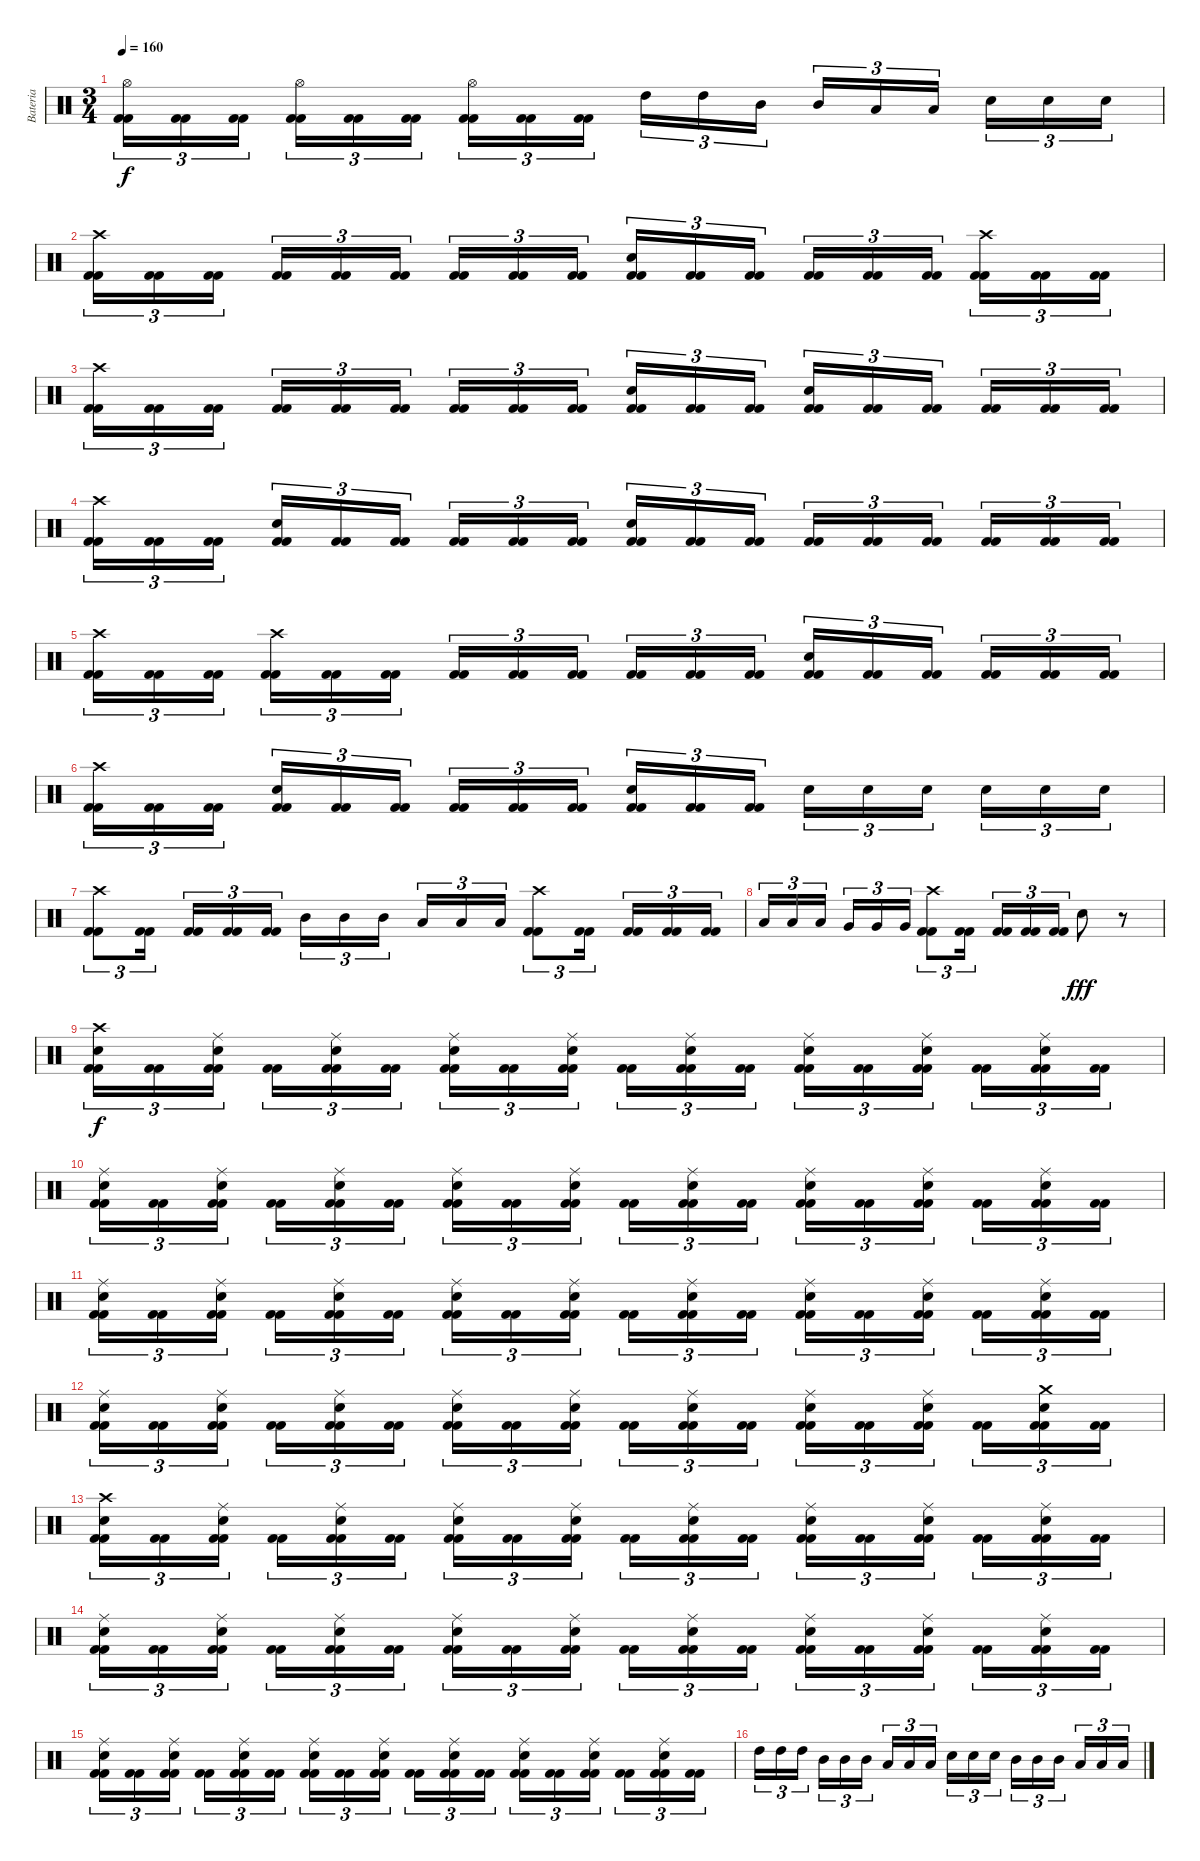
\track ("Bateria" "Bateria") {instrument percussion}
\staff {score}
\articulation defaults
\ts (3 4)
\tempo 160
\clef neutral
\ks c
("Kick (hit) 2" "Kick (hit) 2" "Hi-Hat (open)").16{tu (3 2) dy f} ("Kick (hit) 2" "Kick (hit) 2").16{tu (3 2)} ("Kick (hit) 2" "Kick (hit) 2").16{tu (3 2)} ("Kick (hit) 2" "Kick (hit) 2" "Hi-Hat (open)").16{tu (3 2)} ("Kick (hit) 2" "Kick (hit) 2").16{tu (3 2)} ("Kick (hit) 2" "Kick (hit) 2").16{tu (3 2)} ("Kick (hit) 2" "Kick (hit) 2" "Hi-Hat (open)").16{tu (3 2)} ("Kick (hit) 2" "Kick (hit) 2").16{tu (3 2)} ("Kick (hit) 2" "Kick (hit) 2").16{tu (3 2)} "High Tom (hit)".16{tu (3 2)} "High Tom (hit)".16{tu (3 2)} "Mid Tom (hit)".16{tu (3 2)} "Mid Tom (hit)".16{tu (3 2)} "Low Tom (hit)".16{tu (3 2)} "Low Tom (hit)".16{tu (3 2)} "Snare (hit) 2".16{tu (3 2)} "Snare (hit) 2".16{tu (3 2)} "Snare (hit) 2".16{tu (3 2)} |
("Kick (hit) 2" "Kick (hit) 2" "Crash high (hit)").16{tu (3 2)} ("Kick (hit) 2" "Kick (hit) 2").16{tu (3 2)} ("Kick (hit) 2" "Kick (hit) 2").16{tu (3 2)} ("Kick (hit) 2" "Kick (hit) 2").16{tu (3 2)} ("Kick (hit) 2" "Kick (hit) 2").16{tu (3 2)} ("Kick (hit) 2" "Kick (hit) 2").16{tu (3 2)} ("Kick (hit) 2" "Kick (hit) 2").16{tu (3 2)} ("Kick (hit) 2" "Kick (hit) 2").16{tu (3 2)} ("Kick (hit) 2" "Kick (hit) 2").16{tu (3 2)} ("Kick (hit) 2" "Kick (hit) 2" "Snare (hit) 2").16{tu (3 2)} ("Kick (hit) 2" "Kick (hit) 2").16{tu (3 2)} ("Kick (hit) 2" "Kick (hit) 2").16{tu (3 2)} ("Kick (hit) 2" "Kick (hit) 2").16{tu (3 2)} ("Kick (hit) 2" "Kick (hit) 2").16{tu (3 2)} ("Kick (hit) 2" "Kick (hit) 2").16{tu (3 2)} ("Kick (hit) 2" "Kick (hit) 2" "Crash high (hit)").16{tu (3 2)} ("Kick (hit) 2" "Kick (hit) 2").16{tu (3 2)} ("Kick (hit) 2" "Kick (hit) 2").16{tu (3 2)} |
("Kick (hit) 2" "Kick (hit) 2" "Crash high (hit)").16{tu (3 2)} ("Kick (hit) 2" "Kick (hit) 2").16{tu (3 2)} ("Kick (hit) 2" "Kick (hit) 2").16{tu (3 2)} ("Kick (hit) 2" "Kick (hit) 2").16{tu (3 2)} ("Kick (hit) 2" "Kick (hit) 2").16{tu (3 2)} ("Kick (hit) 2" "Kick (hit) 2").16{tu (3 2)} ("Kick (hit) 2" "Kick (hit) 2").16{tu (3 2)} ("Kick (hit) 2" "Kick (hit) 2").16{tu (3 2)} ("Kick (hit) 2" "Kick (hit) 2").16{tu (3 2)} ("Kick (hit) 2" "Kick (hit) 2" "Snare (hit) 2").16{tu (3 2)} ("Kick (hit) 2" "Kick (hit) 2").16{tu (3 2)} ("Kick (hit) 2" "Kick (hit) 2").16{tu (3 2)} ("Kick (hit) 2" "Kick (hit) 2" "Snare (hit) 2").16{tu (3 2)} ("Kick (hit) 2" "Kick (hit) 2").16{tu (3 2)} ("Kick (hit) 2" "Kick (hit) 2").16{tu (3 2)} ("Kick (hit) 2" "Kick (hit) 2").16{tu (3 2)} ("Kick (hit) 2" "Kick (hit) 2").16{tu (3 2)} ("Kick (hit) 2" "Kick (hit) 2").16{tu (3 2)} |
("Kick (hit) 2" "Kick (hit) 2" "Crash high (hit)").16{tu (3 2)} ("Kick (hit) 2" "Kick (hit) 2").16{tu (3 2)} ("Kick (hit) 2" "Kick (hit) 2").16{tu (3 2)} ("Kick (hit) 2" "Kick (hit) 2" "Snare (hit) 2").16{tu (3 2)} ("Kick (hit) 2" "Kick (hit) 2").16{tu (3 2)} ("Kick (hit) 2" "Kick (hit) 2").16{tu (3 2)} ("Kick (hit) 2" "Kick (hit) 2").16{tu (3 2)} ("Kick (hit) 2" "Kick (hit) 2").16{tu (3 2)} ("Kick (hit) 2" "Kick (hit) 2").16{tu (3 2)} ("Kick (hit) 2" "Kick (hit) 2" "Snare (hit) 2").16{tu (3 2)} ("Kick (hit) 2" "Kick (hit) 2").16{tu (3 2)} ("Kick (hit) 2" "Kick (hit) 2").16{tu (3 2)} ("Kick (hit) 2" "Kick (hit) 2").16{tu (3 2)} ("Kick (hit) 2" "Kick (hit) 2").16{tu (3 2)} ("Kick (hit) 2" "Kick (hit) 2").16{tu (3 2)} ("Kick (hit) 2" "Kick (hit) 2").16{tu (3 2)} ("Kick (hit) 2" "Kick (hit) 2").16{tu (3 2)} ("Kick (hit) 2" "Kick (hit) 2").16{tu (3 2)} |
("Kick (hit) 2" "Kick (hit) 2" "Crash high (hit)").16{tu (3 2)} ("Kick (hit) 2" "Kick (hit) 2").16{tu (3 2)} ("Kick (hit) 2" "Kick (hit) 2").16{tu (3 2)} ("Kick (hit) 2" "Kick (hit) 2" "Crash high (hit)").16{tu (3 2)} ("Kick (hit) 2" "Kick (hit) 2").16{tu (3 2)} ("Kick (hit) 2" "Kick (hit) 2").16{tu (3 2)} ("Kick (hit) 2" "Kick (hit) 2").16{tu (3 2)} ("Kick (hit) 2" "Kick (hit) 2").16{tu (3 2)} ("Kick (hit) 2" "Kick (hit) 2").16{tu (3 2)} ("Kick (hit) 2" "Kick (hit) 2").16{tu (3 2)} ("Kick (hit) 2" "Kick (hit) 2").16{tu (3 2)} ("Kick (hit) 2" "Kick (hit) 2").16{tu (3 2)} ("Kick (hit) 2" "Kick (hit) 2" "Snare (hit) 2").16{tu (3 2)} ("Kick (hit) 2" "Kick (hit) 2").16{tu (3 2)} ("Kick (hit) 2" "Kick (hit) 2").16{tu (3 2)} ("Kick (hit) 2" "Kick (hit) 2").16{tu (3 2)} ("Kick (hit) 2" "Kick (hit) 2").16{tu (3 2)} ("Kick (hit) 2" "Kick (hit) 2").16{tu (3 2)} |
("Kick (hit) 2" "Kick (hit) 2" "Crash high (hit)").16{tu (3 2)} ("Kick (hit) 2" "Kick (hit) 2").16{tu (3 2)} ("Kick (hit) 2" "Kick (hit) 2").16{tu (3 2)} ("Kick (hit) 2" "Kick (hit) 2" "Snare (hit) 2").16{tu (3 2)} ("Kick (hit) 2" "Kick (hit) 2").16{tu (3 2)} ("Kick (hit) 2" "Kick (hit) 2").16{tu (3 2)} ("Kick (hit) 2" "Kick (hit) 2").16{tu (3 2)} ("Kick (hit) 2" "Kick (hit) 2").16{tu (3 2)} ("Kick (hit) 2" "Kick (hit) 2").16{tu (3 2)} ("Kick (hit) 2" "Kick (hit) 2" "Snare (hit) 2").16{tu (3 2)} ("Kick (hit) 2" "Kick (hit) 2").16{tu (3 2)} ("Kick (hit) 2" "Kick (hit) 2").16{tu (3 2)} "Snare (hit) 2".16{tu (3 2)} "Snare (hit) 2".16{tu (3 2)} "Snare (hit) 2".16{tu (3 2)} "Snare (hit) 2".16{tu (3 2)} "Snare (hit) 2".16{tu (3 2)} "Snare (hit) 2".16{tu (3 2)} |
("Kick (hit) 2" "Kick (hit) 2" "Crash high (hit)").8{tu (3 2)} ("Kick (hit) 2" "Kick (hit) 2").16{tu (3 2)} ("Kick (hit) 2" "Kick (hit) 2").16{tu (3 2)} ("Kick (hit) 2" "Kick (hit) 2").16{tu (3 2)} ("Kick (hit) 2" "Kick (hit) 2").16{tu (3 2)} "Mid Tom (hit)".16{tu (3 2)} "Mid Tom (hit)".16{tu (3 2)} "Mid Tom (hit)".16{tu (3 2)} "Low Tom (hit)".16{tu (3 2)} "Low Tom (hit)".16{tu (3 2)} "Low Tom (hit)".16{tu (3 2)} ("Kick (hit) 2" "Kick (hit) 2" "Crash high (hit)").8{tu (3 2)} ("Kick (hit) 2" "Kick (hit) 2").16{tu (3 2)} ("Kick (hit) 2" "Kick (hit) 2").16{tu (3 2)} ("Kick (hit) 2" "Kick (hit) 2").16{tu (3 2)} ("Kick (hit) 2" "Kick (hit) 2").16{tu (3 2)} |
"Low Tom (hit)".16{tu (3 2)} "Low Tom (hit)".16{tu (3 2)} "Low Tom (hit)".16{tu (3 2)} "Very Low Tom (hit)".16{tu (3 2)} "Very Low Tom (hit)".16{tu (3 2)} "Very Low Tom (hit)".16{tu (3 2)} ("Kick (hit) 2" "Kick (hit) 2" "Crash high (hit)").8{tu (3 2)} ("Kick (hit) 2" "Kick (hit) 2").16{tu (3 2)} ("Kick (hit) 2" "Kick (hit) 2").16{tu (3 2)} ("Kick (hit) 2" "Kick (hit) 2").16{tu (3 2)} ("Kick (hit) 2" "Kick (hit) 2").16{tu (3 2)} "Snare (hit) 2".8{dy fff} r.8 |
("Kick (hit) 2" "Kick (hit) 2" "Snare (hit) 2" "Crash high (hit)").16{tu (3 2) dy f} ("Kick (hit) 2" "Kick (hit) 2").16{tu (3 2)} ("Kick (hit) 2" "Kick (hit) 2" "Snare (hit) 2" "Ride (middle)").16{tu (3 2)} ("Kick (hit) 2" "Kick (hit) 2").16{tu (3 2)} ("Kick (hit) 2" "Kick (hit) 2" "Snare (hit) 2" "Ride (middle)").16{tu (3 2)} ("Kick (hit) 2" "Kick (hit) 2").16{tu (3 2)} ("Kick (hit) 2" "Kick (hit) 2" "Snare (hit) 2" "Ride (middle)").16{tu (3 2)} ("Kick (hit) 2" "Kick (hit) 2").16{tu (3 2)} ("Kick (hit) 2" "Kick (hit) 2" "Snare (hit) 2" "Ride (middle)").16{tu (3 2)} ("Kick (hit) 2" "Kick (hit) 2").16{tu (3 2)} ("Kick (hit) 2" "Kick (hit) 2" "Snare (hit) 2" "Ride (middle)").16{tu (3 2)} ("Kick (hit) 2" "Kick (hit) 2").16{tu (3 2)} ("Kick (hit) 2" "Kick (hit) 2" "Snare (hit) 2" "Ride (middle)").16{tu (3 2)} ("Kick (hit) 2" "Kick (hit) 2").16{tu (3 2)} ("Kick (hit) 2" "Kick (hit) 2" "Snare (hit) 2" "Ride (middle)").16{tu (3 2)} ("Kick (hit) 2" "Kick (hit) 2").16{tu (3 2)} ("Kick (hit) 2" "Kick (hit) 2" "Snare (hit) 2" "Ride (middle)").16{tu (3 2)} ("Kick (hit) 2" "Kick (hit) 2").16{tu (3 2)} |
("Kick (hit) 2" "Kick (hit) 2" "Snare (hit) 2" "Ride (middle)").16{tu (3 2)} ("Kick (hit) 2" "Kick (hit) 2").16{tu (3 2)} ("Kick (hit) 2" "Kick (hit) 2" "Snare (hit) 2" "Ride (middle)").16{tu (3 2)} ("Kick (hit) 2" "Kick (hit) 2").16{tu (3 2)} ("Kick (hit) 2" "Kick (hit) 2" "Snare (hit) 2" "Ride (middle)").16{tu (3 2)} ("Kick (hit) 2" "Kick (hit) 2").16{tu (3 2)} ("Kick (hit) 2" "Kick (hit) 2" "Snare (hit) 2" "Ride (middle)").16{tu (3 2)} ("Kick (hit) 2" "Kick (hit) 2").16{tu (3 2)} ("Kick (hit) 2" "Kick (hit) 2" "Snare (hit) 2" "Ride (middle)").16{tu (3 2)} ("Kick (hit) 2" "Kick (hit) 2").16{tu (3 2)} ("Kick (hit) 2" "Kick (hit) 2" "Snare (hit) 2" "Ride (middle)").16{tu (3 2)} ("Kick (hit) 2" "Kick (hit) 2").16{tu (3 2)} ("Kick (hit) 2" "Kick (hit) 2" "Snare (hit) 2" "Ride (middle)").16{tu (3 2)} ("Kick (hit) 2" "Kick (hit) 2").16{tu (3 2)} ("Kick (hit) 2" "Kick (hit) 2" "Snare (hit) 2" "Ride (middle)").16{tu (3 2)} ("Kick (hit) 2" "Kick (hit) 2").16{tu (3 2)} ("Kick (hit) 2" "Kick (hit) 2" "Snare (hit) 2" "Ride (middle)").16{tu (3 2)} ("Kick (hit) 2" "Kick (hit) 2").16{tu (3 2)} |
("Kick (hit) 2" "Kick (hit) 2" "Snare (hit) 2" "Ride (middle)").16{tu (3 2)} ("Kick (hit) 2" "Kick (hit) 2").16{tu (3 2)} ("Kick (hit) 2" "Kick (hit) 2" "Snare (hit) 2" "Ride (middle)").16{tu (3 2)} ("Kick (hit) 2" "Kick (hit) 2").16{tu (3 2)} ("Kick (hit) 2" "Kick (hit) 2" "Snare (hit) 2" "Ride (middle)").16{tu (3 2)} ("Kick (hit) 2" "Kick (hit) 2").16{tu (3 2)} ("Kick (hit) 2" "Kick (hit) 2" "Snare (hit) 2" "Ride (middle)").16{tu (3 2)} ("Kick (hit) 2" "Kick (hit) 2").16{tu (3 2)} ("Kick (hit) 2" "Kick (hit) 2" "Snare (hit) 2" "Ride (middle)").16{tu (3 2)} ("Kick (hit) 2" "Kick (hit) 2").16{tu (3 2)} ("Kick (hit) 2" "Kick (hit) 2" "Snare (hit) 2" "Ride (middle)").16{tu (3 2)} ("Kick (hit) 2" "Kick (hit) 2").16{tu (3 2)} ("Kick (hit) 2" "Kick (hit) 2" "Snare (hit) 2" "Ride (middle)").16{tu (3 2)} ("Kick (hit) 2" "Kick (hit) 2").16{tu (3 2)} ("Kick (hit) 2" "Kick (hit) 2" "Snare (hit) 2" "Ride (middle)").16{tu (3 2)} ("Kick (hit) 2" "Kick (hit) 2").16{tu (3 2)} ("Kick (hit) 2" "Kick (hit) 2" "Snare (hit) 2" "Ride (middle)").16{tu (3 2)} ("Kick (hit) 2" "Kick (hit) 2").16{tu (3 2)} |
("Kick (hit) 2" "Kick (hit) 2" "Snare (hit) 2" "Ride (middle)").16{tu (3 2)} ("Kick (hit) 2" "Kick (hit) 2").16{tu (3 2)} ("Kick (hit) 2" "Kick (hit) 2" "Snare (hit) 2" "Ride (middle)").16{tu (3 2)} ("Kick (hit) 2" "Kick (hit) 2").16{tu (3 2)} ("Kick (hit) 2" "Kick (hit) 2" "Snare (hit) 2" "Ride (middle)").16{tu (3 2)} ("Kick (hit) 2" "Kick (hit) 2").16{tu (3 2)} ("Kick (hit) 2" "Kick (hit) 2" "Snare (hit) 2" "Ride (middle)").16{tu (3 2)} ("Kick (hit) 2" "Kick (hit) 2").16{tu (3 2)} ("Kick (hit) 2" "Kick (hit) 2" "Snare (hit) 2" "Ride (middle)").16{tu (3 2)} ("Kick (hit) 2" "Kick (hit) 2").16{tu (3 2)} ("Kick (hit) 2" "Kick (hit) 2" "Snare (hit) 2" "Ride (middle)").16{tu (3 2)} ("Kick (hit) 2" "Kick (hit) 2").16{tu (3 2)} ("Kick (hit) 2" "Kick (hit) 2" "Snare (hit) 2" "Ride (middle)").16{tu (3 2)} ("Kick (hit) 2" "Kick (hit) 2").16{tu (3 2)} ("Kick (hit) 2" "Kick (hit) 2" "Snare (hit) 2" "Ride (middle)").16{tu (3 2)} ("Kick (hit) 2" "Kick (hit) 2").16{tu (3 2)} ("Kick (hit) 2" "Kick (hit) 2" "Snare (hit) 2" "Crash medium (hit)").16{tu (3 2)} ("Kick (hit) 2" "Kick (hit) 2").16{tu (3 2)} |
("Kick (hit) 2" "Kick (hit) 2" "Snare (hit) 2" "Crash high (hit)").16{tu (3 2)} ("Kick (hit) 2" "Kick (hit) 2").16{tu (3 2)} ("Kick (hit) 2" "Kick (hit) 2" "Snare (hit) 2" "Ride (middle)").16{tu (3 2)} ("Kick (hit) 2" "Kick (hit) 2").16{tu (3 2)} ("Kick (hit) 2" "Kick (hit) 2" "Snare (hit) 2" "Ride (middle)").16{tu (3 2)} ("Kick (hit) 2" "Kick (hit) 2").16{tu (3 2)} ("Kick (hit) 2" "Kick (hit) 2" "Snare (hit) 2" "Ride (middle)").16{tu (3 2)} ("Kick (hit) 2" "Kick (hit) 2").16{tu (3 2)} ("Kick (hit) 2" "Kick (hit) 2" "Snare (hit) 2" "Ride (middle)").16{tu (3 2)} ("Kick (hit) 2" "Kick (hit) 2").16{tu (3 2)} ("Kick (hit) 2" "Kick (hit) 2" "Snare (hit) 2" "Ride (middle)").16{tu (3 2)} ("Kick (hit) 2" "Kick (hit) 2").16{tu (3 2)} ("Kick (hit) 2" "Kick (hit) 2" "Snare (hit) 2" "Ride (middle)").16{tu (3 2)} ("Kick (hit) 2" "Kick (hit) 2").16{tu (3 2)} ("Kick (hit) 2" "Kick (hit) 2" "Snare (hit) 2" "Ride (middle)").16{tu (3 2)} ("Kick (hit) 2" "Kick (hit) 2").16{tu (3 2)} ("Kick (hit) 2" "Kick (hit) 2" "Snare (hit) 2" "Ride (middle)").16{tu (3 2)} ("Kick (hit) 2" "Kick (hit) 2").16{tu (3 2)} |
("Kick (hit) 2" "Kick (hit) 2" "Snare (hit) 2" "Ride (middle)").16{tu (3 2)} ("Kick (hit) 2" "Kick (hit) 2").16{tu (3 2)} ("Kick (hit) 2" "Kick (hit) 2" "Snare (hit) 2" "Ride (middle)").16{tu (3 2)} ("Kick (hit) 2" "Kick (hit) 2").16{tu (3 2)} ("Kick (hit) 2" "Kick (hit) 2" "Snare (hit) 2" "Ride (middle)").16{tu (3 2)} ("Kick (hit) 2" "Kick (hit) 2").16{tu (3 2)} ("Kick (hit) 2" "Kick (hit) 2" "Snare (hit) 2" "Ride (middle)").16{tu (3 2)} ("Kick (hit) 2" "Kick (hit) 2").16{tu (3 2)} ("Kick (hit) 2" "Kick (hit) 2" "Snare (hit) 2" "Ride (middle)").16{tu (3 2)} ("Kick (hit) 2" "Kick (hit) 2").16{tu (3 2)} ("Kick (hit) 2" "Kick (hit) 2" "Snare (hit) 2" "Ride (middle)").16{tu (3 2)} ("Kick (hit) 2" "Kick (hit) 2").16{tu (3 2)} ("Kick (hit) 2" "Kick (hit) 2" "Snare (hit) 2" "Ride (middle)").16{tu (3 2)} ("Kick (hit) 2" "Kick (hit) 2").16{tu (3 2)} ("Kick (hit) 2" "Kick (hit) 2" "Snare (hit) 2" "Ride (middle)").16{tu (3 2)} ("Kick (hit) 2" "Kick (hit) 2").16{tu (3 2)} ("Kick (hit) 2" "Kick (hit) 2" "Snare (hit) 2" "Ride (middle)").16{tu (3 2)} ("Kick (hit) 2" "Kick (hit) 2").16{tu (3 2)} |
("Kick (hit) 2" "Kick (hit) 2" "Snare (hit) 2" "Ride (middle)").16{tu (3 2)} ("Kick (hit) 2" "Kick (hit) 2").16{tu (3 2)} ("Kick (hit) 2" "Kick (hit) 2" "Snare (hit) 2" "Ride (middle)").16{tu (3 2)} ("Kick (hit) 2" "Kick (hit) 2").16{tu (3 2)} ("Kick (hit) 2" "Kick (hit) 2" "Snare (hit) 2" "Ride (middle)").16{tu (3 2)} ("Kick (hit) 2" "Kick (hit) 2").16{tu (3 2)} ("Kick (hit) 2" "Kick (hit) 2" "Snare (hit) 2" "Ride (middle)").16{tu (3 2)} ("Kick (hit) 2" "Kick (hit) 2").16{tu (3 2)} ("Kick (hit) 2" "Kick (hit) 2" "Snare (hit) 2" "Ride (middle)").16{tu (3 2)} ("Kick (hit) 2" "Kick (hit) 2").16{tu (3 2)} ("Kick (hit) 2" "Kick (hit) 2" "Snare (hit) 2" "Ride (middle)").16{tu (3 2)} ("Kick (hit) 2" "Kick (hit) 2").16{tu (3 2)} ("Kick (hit) 2" "Kick (hit) 2" "Snare (hit) 2" "Ride (middle)").16{tu (3 2)} ("Kick (hit) 2" "Kick (hit) 2").16{tu (3 2)} ("Kick (hit) 2" "Kick (hit) 2" "Snare (hit) 2" "Ride (middle)").16{tu (3 2)} ("Kick (hit) 2" "Kick (hit) 2").16{tu (3 2)} ("Kick (hit) 2" "Kick (hit) 2" "Snare (hit) 2" "Ride (middle)").16{tu (3 2)} ("Kick (hit) 2" "Kick (hit) 2").16{tu (3 2)} |
"High Tom (hit)".16{tu (3 2)} "High Tom (hit)".16{tu (3 2)} "High Tom (hit)".16{tu (3 2)} "Mid Tom (hit)".16{tu (3 2)} "Mid Tom (hit)".16{tu (3 2)} "Mid Tom (hit)".16{tu (3 2)} "Low Tom (hit)".16{tu (3 2)} "Low Tom (hit)".16{tu (3 2)} "Low Tom (hit)".16{tu (3 2)} "Snare (hit) 2".16{tu (3 2)} "Snare (hit) 2".16{tu (3 2)} "Snare (hit) 2".16{tu (3 2)} "Mid Tom (hit)".16{tu (3 2)} "Mid Tom (hit)".16{tu (3 2)} "Mid Tom (hit)".16{tu (3 2)} "Low Tom (hit)".16{tu (3 2)} "Low Tom (hit)".16{tu (3 2)} "Low Tom (hit)".16{tu (3 2)}
